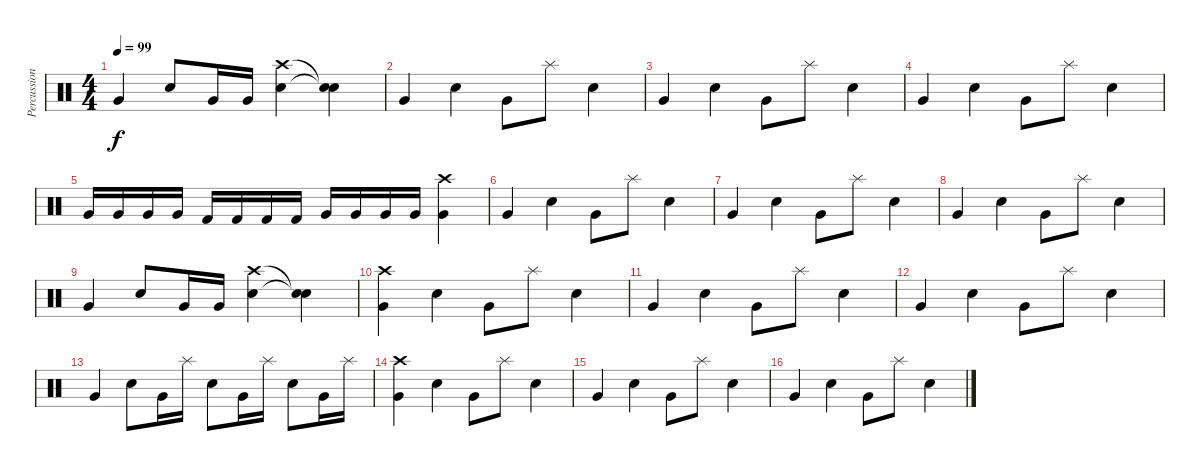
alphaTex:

\track ("Percussion" "Percussion") {instrument percussion}
\staff {score}
\articulation defaults
\ts (4 4)
\tempo 99
\clef neutral
\ks c "Very Low Tom (hit)".4{dy f} "Electric Snare (hit)".8 "Very Low Tom (hit)".16 "Very Low Tom (hit)".16
("Crash high (hit)" "Electric Snare (hit)").4 ("Snare (hit)"{t} "Snare (hit)"{t}).4 |
"Very Low Tom (hit)".4 "Electric Snare (hit)".4 "Very Low Tom (hit)".8 "Splash (hit)".8 "Electric Snare (hit)".4 |
"Very Low Tom (hit)".4 "Electric Snare (hit)".4 "Very Low Tom (hit)".8 "Splash (hit)".8 "Electric Snare (hit)".4 |
"Very Low Tom (hit)".4 "Electric Snare (hit)".4 "Very Low Tom (hit)".8 "Splash (hit)".8 "Electric Snare (hit)".4 |
"Very Low Tom (hit)".16 "Very Low Tom (hit)".16 "Very Low Tom (hit)".16 "Very Low Tom (hit)".16 "Kick (hit) 2".16 "Kick (hit) 2".16 "Kick (hit) 2".16 "Kick (hit) 2".16 "Very Low Tom (hit)".16 "Very Low Tom (hit)".16 "Very Low Tom (hit)".16 "Very Low Tom (hit)".16 ("Crash high (hit)" "Very Low Tom (hit)").4 |
"Very Low Tom (hit)".4 "Electric Snare (hit)".4 "Very Low Tom (hit)".8 "Splash (hit)".8 "Electric Snare (hit)".4 |
"Very Low Tom (hit)".4 "Electric Snare (hit)".4 "Very Low Tom (hit)".8 "Splash (hit)".8 "Electric Snare (hit)".4 |
"Very Low Tom (hit)".4 "Electric Snare (hit)".4 "Very Low Tom (hit)".8 "Splash (hit)".8 "Electric Snare (hit)".4 |
"Very Low Tom (hit)".4 "Electric Snare (hit)".8 "Very Low Tom (hit)".16 "Very Low Tom (hit)".16 ("Crash high (hit)" "Electric Snare (hit)").4 ("Snare (hit)"{t} "Snare (hit)"{t}).4 |
("Crash high (hit)" "Very Low Tom (hit)").4 "Electric Snare (hit)".4 "Very Low Tom (hit)".8 "Splash (hit)".8 "Electric Snare (hit)".4 |
"Very Low Tom (hit)".4 "Electric Snare (hit)".4 "Very Low Tom (hit)".8 "Splash (hit)".8 "Electric Snare (hit)".4 |
"Very Low Tom (hit)".4 "Electric Snare (hit)".4 "Very Low Tom (hit)".8 "Splash (hit)".8 "Electric Snare (hit)".4 |
"Very Low Tom (hit)".4 "Electric Snare (hit)".8 "Very Low Tom (hit)".16 "Splash (hit)".16 "Electric Snare (hit)".8 "Very Low Tom (hit)".16 "Splash (hit)".16 "Electric Snare (hit)".8 "Very Low Tom (hit)".16 "Splash (hit)".16 |
("Crash high (hit)" "Very Low Tom (hit)").4 "Electric Snare (hit)".4 "Very Low Tom (hit)".8 "Splash (hit)".8 "Electric Snare (hit)".4 |
"Very Low Tom (hit)".4 "Electric Snare (hit)".4 "Very Low Tom (hit)".8 "Splash (hit)".8 "Electric Snare (hit)".4 |
"Very Low Tom (hit)".4 "Electric Snare (hit)".4 "Very Low Tom (hit)".8 "Splash (hit)".8 "Electric Snare (hit)".4
